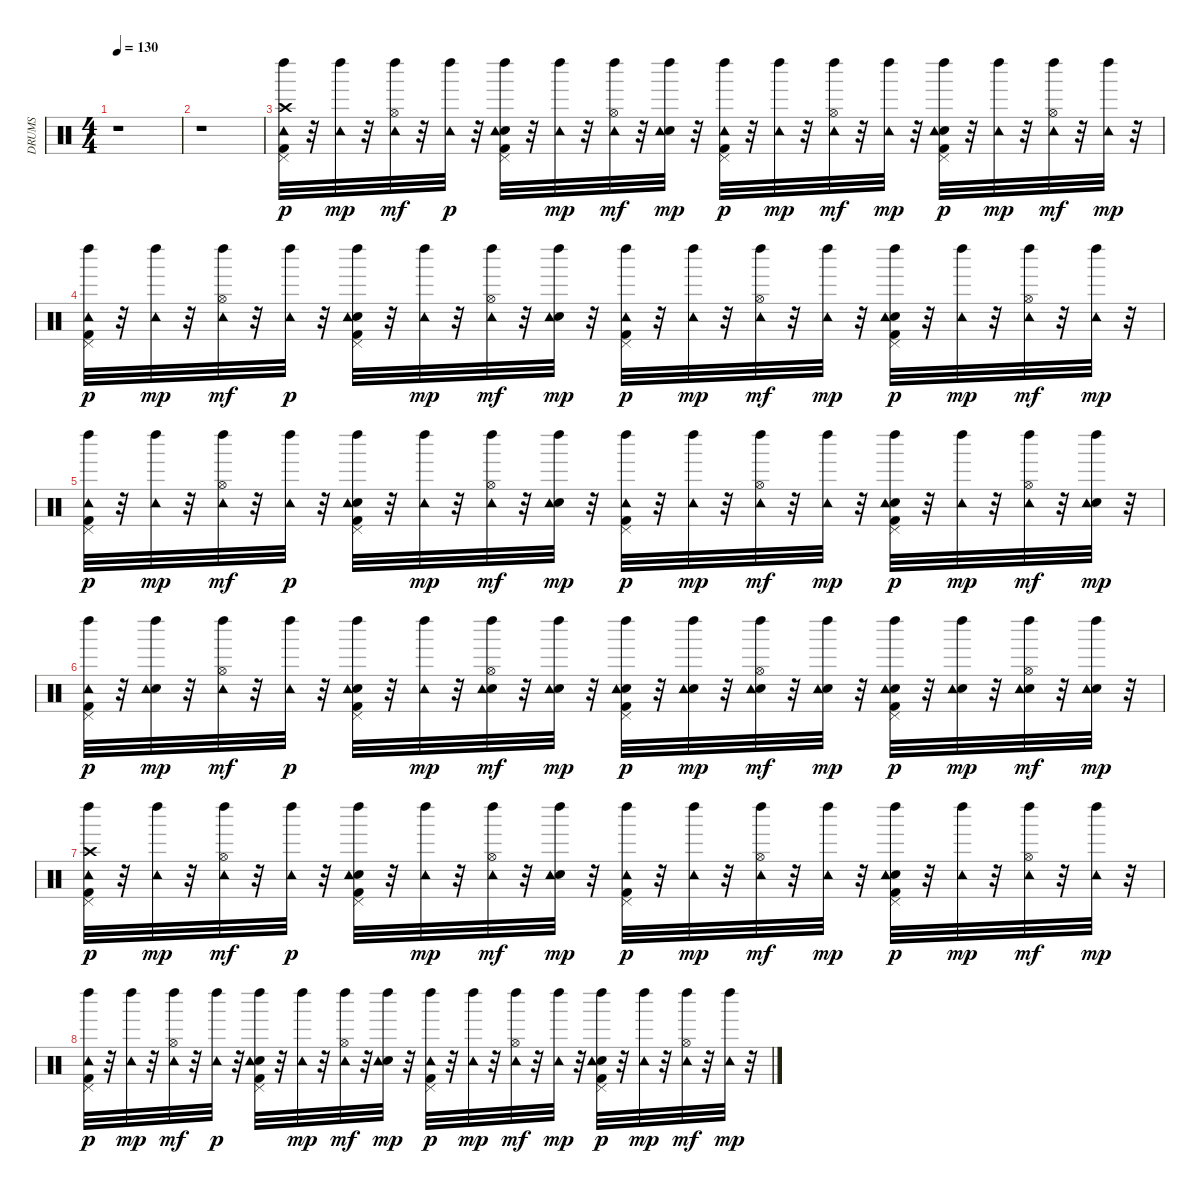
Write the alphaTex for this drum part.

\track ("DRUMS" "DRUMS") {instrument percussion}
\staff {score}
\articulation defaults
\ts (4 4)
\tempo 130
\clef neutral
\ks c
r.1{dy ppp} |
r.1 |
("Kick (hit) 2" "Pedal Hi-Hat (hit)" "Left Maraca (hit)" "Crash high (hit)" "Tambourine (hit)").32{dy p} r.32 ("Left Maraca (hit)" "Tambourine (hit)").32{dy mp} r.32 ("Hi-Hat (open)" "Left Maraca (hit)" "Tambourine (hit)").32{dy mf} r.32 ("Left Maraca (hit)" "Tambourine (hit)").32{dy p} r.32 ("Kick (hit) 2" "Electric Snare (hit)" "Pedal Hi-Hat (hit)" "Left Maraca (hit)" "Tambourine (hit)").32 r.32 ("Left Maraca (hit)" "Tambourine (hit)").32{dy mp} r.32 ("Hi-Hat (open)" "Left Maraca (hit)" "Tambourine (hit)").32{dy mf} r.32 ("Electric Snare (hit)" "Left Maraca (hit)" "Tambourine (hit)").32{dy mp} r.32 ("Kick (hit) 2" "Pedal Hi-Hat (hit)" "Left Maraca (hit)" "Tambourine (hit)").32{dy p} r.32 ("Left Maraca (hit)" "Tambourine (hit)").32{dy mp} r.32 ("Hi-Hat (open)" "Left Maraca (hit)" "Tambourine (hit)").32{dy mf} r.32 ("Left Maraca (hit)" "Tambourine (hit)").32{dy mp} r.32 ("Kick (hit) 2" "Electric Snare (hit)" "Pedal Hi-Hat (hit)" "Left Maraca (hit)" "Tambourine (hit)").32{dy p} r.32 ("Left Maraca (hit)" "Tambourine (hit)").32{dy mp} r.32 ("Hi-Hat (open)" "Left Maraca (hit)" "Tambourine (hit)").32{dy mf} r.32 ("Left Maraca (hit)" "Tambourine (hit)").32{dy mp} r.32 |
("Kick (hit) 2" "Pedal Hi-Hat (hit)" "Left Maraca (hit)" "Tambourine (hit)").32{dy p} r.32 ("Left Maraca (hit)" "Tambourine (hit)").32{dy mp} r.32 ("Hi-Hat (open)" "Left Maraca (hit)" "Tambourine (hit)").32{dy mf} r.32 ("Left Maraca (hit)" "Tambourine (hit)").32{dy p} r.32 ("Kick (hit) 2" "Electric Snare (hit)" "Pedal Hi-Hat (hit)" "Left Maraca (hit)" "Tambourine (hit)").32 r.32 ("Left Maraca (hit)" "Tambourine (hit)").32{dy mp} r.32 ("Hi-Hat (open)" "Left Maraca (hit)" "Tambourine (hit)").32{dy mf} r.32 ("Electric Snare (hit)" "Left Maraca (hit)" "Tambourine (hit)").32{dy mp} r.32 ("Kick (hit) 2" "Pedal Hi-Hat (hit)" "Left Maraca (hit)" "Tambourine (hit)").32{dy p} r.32 ("Left Maraca (hit)" "Tambourine (hit)").32{dy mp} r.32 ("Hi-Hat (open)" "Left Maraca (hit)" "Tambourine (hit)").32{dy mf} r.32 ("Left Maraca (hit)" "Tambourine (hit)").32{dy mp} r.32 ("Kick (hit) 2" "Electric Snare (hit)" "Pedal Hi-Hat (hit)" "Left Maraca (hit)" "Tambourine (hit)").32{dy p} r.32 ("Left Maraca (hit)" "Tambourine (hit)").32{dy mp} r.32 ("Hi-Hat (open)" "Left Maraca (hit)" "Tambourine (hit)").32{dy mf} r.32 ("Left Maraca (hit)" "Tambourine (hit)").32{dy mp} r.32 |
("Kick (hit) 2" "Pedal Hi-Hat (hit)" "Left Maraca (hit)" "Tambourine (hit)").32{dy p} r.32 ("Left Maraca (hit)" "Tambourine (hit)").32{dy mp} r.32 ("Hi-Hat (open)" "Left Maraca (hit)" "Tambourine (hit)").32{dy mf} r.32 ("Left Maraca (hit)" "Tambourine (hit)").32{dy p} r.32 ("Kick (hit) 2" "Electric Snare (hit)" "Pedal Hi-Hat (hit)" "Left Maraca (hit)" "Tambourine (hit)").32 r.32 ("Left Maraca (hit)" "Tambourine (hit)").32{dy mp} r.32 ("Hi-Hat (open)" "Left Maraca (hit)" "Tambourine (hit)").32{dy mf} r.32 ("Electric Snare (hit)" "Left Maraca (hit)" "Tambourine (hit)").32{dy mp} r.32 ("Kick (hit) 2" "Pedal Hi-Hat (hit)" "Left Maraca (hit)" "Tambourine (hit)").32{dy p} r.32 ("Left Maraca (hit)" "Tambourine (hit)").32{dy mp} r.32 ("Hi-Hat (open)" "Left Maraca (hit)" "Tambourine (hit)").32{dy mf} r.32 ("Left Maraca (hit)" "Tambourine (hit)").32{dy mp} r.32 ("Kick (hit) 2" "Electric Snare (hit)" "Pedal Hi-Hat (hit)" "Left Maraca (hit)" "Tambourine (hit)").32{dy p} r.32 ("Left Maraca (hit)" "Tambourine (hit)").32{dy mp} r.32 ("Hi-Hat (open)" "Left Maraca (hit)" "Tambourine (hit)").32{dy mf} r.32 ("Electric Snare (hit)" "Left Maraca (hit)" "Tambourine (hit)").32{dy mp} r.32 |
("Kick (hit) 2" "Pedal Hi-Hat (hit)" "Left Maraca (hit)" "Tambourine (hit)").32{dy p} r.32 ("Electric Snare (hit)" "Left Maraca (hit)" "Tambourine (hit)").32{dy mp} r.32 ("Hi-Hat (open)" "Left Maraca (hit)" "Tambourine (hit)").32{dy mf} r.32 ("Left Maraca (hit)" "Tambourine (hit)").32{dy p} r.32 ("Kick (hit) 2" "Electric Snare (hit)" "Pedal Hi-Hat (hit)" "Left Maraca (hit)" "Tambourine (hit)").32 r.32 ("Left Maraca (hit)" "Tambourine (hit)").32{dy mp} r.32 ("Electric Snare (hit)" "Hi-Hat (open)" "Left Maraca (hit)" "Tambourine (hit)").32{dy mf} r.32 ("Electric Snare (hit)" "Left Maraca (hit)" "Tambourine (hit)").32{dy mp} r.32 ("Kick (hit) 2" "Electric Snare (hit)" "Pedal Hi-Hat (hit)" "Left Maraca (hit)" "Tambourine (hit)").32{dy p} r.32 ("Electric Snare (hit)" "Left Maraca (hit)" "Tambourine (hit)").32{dy mp} r.32 ("Electric Snare (hit)" "Hi-Hat (open)" "Left Maraca (hit)" "Tambourine (hit)").32{dy mf} r.32 ("Electric Snare (hit)" "Left Maraca (hit)" "Tambourine (hit)").32{dy mp} r.32 ("Kick (hit) 2" "Electric Snare (hit)" "Pedal Hi-Hat (hit)" "Left Maraca (hit)" "Tambourine (hit)").32{dy p} r.32 ("Electric Snare (hit)" "Left Maraca (hit)" "Tambourine (hit)").32{dy mp} r.32 ("Electric Snare (hit)" "Hi-Hat (open)" "Left Maraca (hit)" "Tambourine (hit)").32{dy mf} r.32 ("Electric Snare (hit)" "Left Maraca (hit)" "Tambourine (hit)").32{dy mp} r.32 |
("Kick (hit) 2" "Pedal Hi-Hat (hit)" "Left Maraca (hit)" "Crash high (hit)" "Tambourine (hit)").32{dy p} r.32 ("Left Maraca (hit)" "Tambourine (hit)").32{dy mp} r.32 ("Hi-Hat (open)" "Left Maraca (hit)" "Tambourine (hit)").32{dy mf} r.32 ("Left Maraca (hit)" "Tambourine (hit)").32{dy p} r.32 ("Kick (hit) 2" "Electric Snare (hit)" "Pedal Hi-Hat (hit)" "Left Maraca (hit)" "Tambourine (hit)").32 r.32 ("Left Maraca (hit)" "Tambourine (hit)").32{dy mp} r.32 ("Hi-Hat (open)" "Left Maraca (hit)" "Tambourine (hit)").32{dy mf} r.32 ("Electric Snare (hit)" "Left Maraca (hit)" "Tambourine (hit)").32{dy mp} r.32 ("Kick (hit) 2" "Pedal Hi-Hat (hit)" "Left Maraca (hit)" "Tambourine (hit)").32{dy p} r.32 ("Left Maraca (hit)" "Tambourine (hit)").32{dy mp} r.32 ("Hi-Hat (open)" "Left Maraca (hit)" "Tambourine (hit)").32{dy mf} r.32 ("Left Maraca (hit)" "Tambourine (hit)").32{dy mp} r.32 ("Kick (hit) 2" "Electric Snare (hit)" "Pedal Hi-Hat (hit)" "Left Maraca (hit)" "Tambourine (hit)").32{dy p} r.32 ("Left Maraca (hit)" "Tambourine (hit)").32{dy mp} r.32 ("Hi-Hat (open)" "Left Maraca (hit)" "Tambourine (hit)").32{dy mf} r.32 ("Left Maraca (hit)" "Tambourine (hit)").32{dy mp} r.32 |
("Kick (hit) 2" "Pedal Hi-Hat (hit)" "Left Maraca (hit)" "Tambourine (hit)").32{dy p} r.32 ("Left Maraca (hit)" "Tambourine (hit)").32{dy mp} r.32 ("Hi-Hat (open)" "Left Maraca (hit)" "Tambourine (hit)").32{dy mf} r.32 ("Left Maraca (hit)" "Tambourine (hit)").32{dy p} r.32 ("Kick (hit) 2" "Electric Snare (hit)" "Pedal Hi-Hat (hit)" "Left Maraca (hit)" "Tambourine (hit)").32 r.32 ("Left Maraca (hit)" "Tambourine (hit)").32{dy mp} r.32 ("Hi-Hat (open)" "Left Maraca (hit)" "Tambourine (hit)").32{dy mf} r.32 ("Electric Snare (hit)" "Left Maraca (hit)" "Tambourine (hit)").32{dy mp} r.32 ("Kick (hit) 2" "Pedal Hi-Hat (hit)" "Left Maraca (hit)" "Tambourine (hit)").32{dy p} r.32 ("Left Maraca (hit)" "Tambourine (hit)").32{dy mp} r.32 ("Hi-Hat (open)" "Left Maraca (hit)" "Tambourine (hit)").32{dy mf} r.32 ("Left Maraca (hit)" "Tambourine (hit)").32{dy mp} r.32 ("Kick (hit) 2" "Electric Snare (hit)" "Pedal Hi-Hat (hit)" "Left Maraca (hit)" "Tambourine (hit)").32{dy p} r.32 ("Left Maraca (hit)" "Tambourine (hit)").32{dy mp} r.32 ("Hi-Hat (open)" "Left Maraca (hit)" "Tambourine (hit)").32{dy mf} r.32 ("Left Maraca (hit)" "Tambourine (hit)").32{dy mp} r.32
